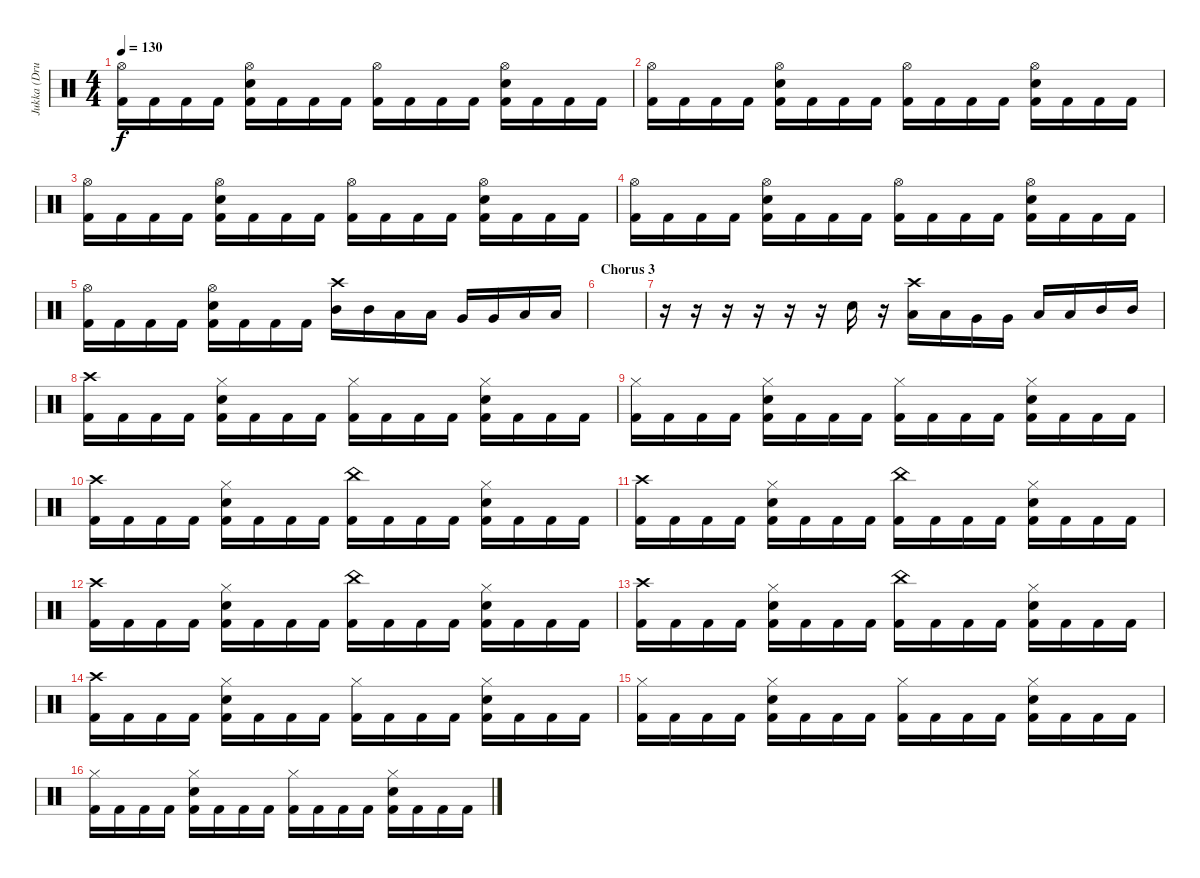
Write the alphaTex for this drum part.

\track ("Jukka (Drums)" "Jukka (Dru") {instrument percussion}
\staff {score}
\articulation defaults
\ts (4 4)
\tempo 130
\clef neutral
\ks c
("Hi-Hat (open)" "Kick (hit) 2").16{dy f} "Kick (hit) 2".16 "Kick (hit) 2".16 "Kick (hit) 2".16 ("Hi-Hat (open)" "Kick (hit) 2" "Electric Snare (hit)").16 "Kick (hit) 2".16 "Kick (hit) 2".16 "Kick (hit) 2".16 ("Hi-Hat (open)" "Kick (hit) 2").16 "Kick (hit) 2".16 "Kick (hit) 2".16 "Kick (hit) 2".16 ("Hi-Hat (open)" "Kick (hit) 2" "Electric Snare (hit)").16 "Kick (hit) 2".16 "Kick (hit) 2".16 "Kick (hit) 2".16 |
("Hi-Hat (open)" "Kick (hit) 2").16 "Kick (hit) 2".16 "Kick (hit) 2".16 "Kick (hit) 2".16 ("Hi-Hat (open)" "Kick (hit) 2" "Electric Snare (hit)").16 "Kick (hit) 2".16 "Kick (hit) 2".16 "Kick (hit) 2".16 ("Hi-Hat (open)" "Kick (hit) 2").16 "Kick (hit) 2".16 "Kick (hit) 2".16 "Kick (hit) 2".16 ("Hi-Hat (open)" "Kick (hit) 2" "Electric Snare (hit)").16 "Kick (hit) 2".16 "Kick (hit) 2".16 "Kick (hit) 2".16 |
("Hi-Hat (open)" "Kick (hit) 2").16 "Kick (hit) 2".16 "Kick (hit) 2".16 "Kick (hit) 2".16 ("Hi-Hat (open)" "Kick (hit) 2" "Electric Snare (hit)").16 "Kick (hit) 2".16 "Kick (hit) 2".16 "Kick (hit) 2".16 ("Hi-Hat (open)" "Kick (hit) 2").16 "Kick (hit) 2".16 "Kick (hit) 2".16 "Kick (hit) 2".16 ("Hi-Hat (open)" "Kick (hit) 2" "Electric Snare (hit)").16 "Kick (hit) 2".16 "Kick (hit) 2".16 "Kick (hit) 2".16 |
("Hi-Hat (open)" "Kick (hit) 2").16 "Kick (hit) 2".16 "Kick (hit) 2".16 "Kick (hit) 2".16 ("Hi-Hat (open)" "Kick (hit) 2" "Electric Snare (hit)").16 "Kick (hit) 2".16 "Kick (hit) 2".16 "Kick (hit) 2".16 ("Hi-Hat (open)" "Kick (hit) 2").16 "Kick (hit) 2".16 "Kick (hit) 2".16 "Kick (hit) 2".16 ("Hi-Hat (open)" "Kick (hit) 2" "Electric Snare (hit)").16 "Kick (hit) 2".16 "Kick (hit) 2".16 "Kick (hit) 2".16 |
("Hi-Hat (open)" "Kick (hit) 2").16 "Kick (hit) 2".16 "Kick (hit) 2".16 "Kick (hit) 2".16 ("Hi-Hat (open)" "Kick (hit) 2" "Electric Snare (hit)").16 "Kick (hit) 2".16 "Kick (hit) 2".16 "Kick (hit) 2".16 ("Crash high (hit)" "Mid Tom (hit)").16 "Mid Tom (hit)".16 "Low Tom (hit)".16 "Low Tom (hit)".16 "Very Low Tom (hit)".16 "Very Low Tom (hit)".16 "Low Floor Tom (hit)".16 "Low Floor Tom (hit)".16 |
\section ("" "Chorus 3")
|
r.16 r.16 r.16 r.16 r.16 r.16 "Electric Snare (hit)".16 r.16 ("Crash high (hit)" "Low Floor Tom (hit)").16 "Low Floor Tom (hit)".16 "Very Low Tom (hit)".16 "Very Low Tom (hit)".16 "Low Tom (hit)".16 "Low Tom (hit)".16 "Mid Tom (hit)".16 "Mid Tom (hit)".16 |
("Crash high (hit)" "Kick (hit) 2").16 "Kick (hit) 2".16 "Kick (hit) 2".16 "Kick (hit) 2".16 ("Hi-Hat (closed)" "Kick (hit) 2" "Electric Snare (hit)").16 "Kick (hit) 2".16 "Kick (hit) 2".16 "Kick (hit) 2".16 ("Hi-Hat (closed)" "Kick (hit) 2").16 "Kick (hit) 2".16 "Kick (hit) 2".16 "Kick (hit) 2".16 ("Hi-Hat (closed)" "Kick (hit) 2" "Electric Snare (hit)").16 "Kick (hit) 2".16 "Kick (hit) 2".16 "Kick (hit) 2".16 |
("Hi-Hat (closed)" "Kick (hit) 2").16 "Kick (hit) 2".16 "Kick (hit) 2".16 "Kick (hit) 2".16 ("Hi-Hat (closed)" "Kick (hit) 2" "Electric Snare (hit)").16 "Kick (hit) 2".16 "Kick (hit) 2".16 "Kick (hit) 2".16 ("Hi-Hat (closed)" "Kick (hit) 2").16 "Kick (hit) 2".16 "Kick (hit) 2".16 "Kick (hit) 2".16 ("Hi-Hat (closed)" "Kick (hit) 2" "Electric Snare (hit)").16 "Kick (hit) 2".16 "Kick (hit) 2".16 "Kick (hit) 2".16 |
("Crash high (hit)" "Kick (hit) 2").16 "Kick (hit) 2".16 "Kick (hit) 2".16 "Kick (hit) 2".16 ("Hi-Hat (closed)" "Kick (hit) 2" "Electric Snare (hit)").16 "Kick (hit) 2".16 "Kick (hit) 2".16 "Kick (hit) 2".16 ("China (hit)" "Kick (hit) 2").16 "Kick (hit) 2".16 "Kick (hit) 2".16 "Kick (hit) 2".16 ("Hi-Hat (closed)" "Kick (hit) 2" "Electric Snare (hit)").16 "Kick (hit) 2".16 "Kick (hit) 2".16 "Kick (hit) 2".16 |
("Crash high (hit)" "Kick (hit) 2").16 "Kick (hit) 2".16 "Kick (hit) 2".16 "Kick (hit) 2".16 ("Hi-Hat (closed)" "Kick (hit) 2" "Electric Snare (hit)").16 "Kick (hit) 2".16 "Kick (hit) 2".16 "Kick (hit) 2".16 ("China (hit)" "Kick (hit) 2").16 "Kick (hit) 2".16 "Kick (hit) 2".16 "Kick (hit) 2".16 ("Hi-Hat (closed)" "Kick (hit) 2" "Electric Snare (hit)").16 "Kick (hit) 2".16 "Kick (hit) 2".16 "Kick (hit) 2".16 |
("Crash high (hit)" "Kick (hit) 2").16 "Kick (hit) 2".16 "Kick (hit) 2".16 "Kick (hit) 2".16 ("Hi-Hat (closed)" "Kick (hit) 2" "Electric Snare (hit)").16 "Kick (hit) 2".16 "Kick (hit) 2".16 "Kick (hit) 2".16 ("China (hit)" "Kick (hit) 2").16 "Kick (hit) 2".16 "Kick (hit) 2".16 "Kick (hit) 2".16 ("Hi-Hat (closed)" "Kick (hit) 2" "Electric Snare (hit)").16 "Kick (hit) 2".16 "Kick (hit) 2".16 "Kick (hit) 2".16 |
("Crash high (hit)" "Kick (hit) 2").16 "Kick (hit) 2".16 "Kick (hit) 2".16 "Kick (hit) 2".16 ("Hi-Hat (closed)" "Kick (hit) 2" "Electric Snare (hit)").16 "Kick (hit) 2".16 "Kick (hit) 2".16 "Kick (hit) 2".16 ("China (hit)" "Kick (hit) 2").16 "Kick (hit) 2".16 "Kick (hit) 2".16 "Kick (hit) 2".16 ("Hi-Hat (closed)" "Kick (hit) 2" "Electric Snare (hit)").16 "Kick (hit) 2".16 "Kick (hit) 2".16 "Kick (hit) 2".16 |
("Crash high (hit)" "Kick (hit) 2").16 "Kick (hit) 2".16 "Kick (hit) 2".16 "Kick (hit) 2".16 ("Hi-Hat (closed)" "Kick (hit) 2" "Electric Snare (hit)").16 "Kick (hit) 2".16 "Kick (hit) 2".16 "Kick (hit) 2".16 ("Hi-Hat (closed)" "Kick (hit) 2").16 "Kick (hit) 2".16 "Kick (hit) 2".16 "Kick (hit) 2".16 ("Hi-Hat (closed)" "Kick (hit) 2" "Electric Snare (hit)").16 "Kick (hit) 2".16 "Kick (hit) 2".16 "Kick (hit) 2".16 |
("Hi-Hat (closed)" "Kick (hit) 2").16 "Kick (hit) 2".16 "Kick (hit) 2".16 "Kick (hit) 2".16 ("Hi-Hat (closed)" "Kick (hit) 2" "Electric Snare (hit)").16 "Kick (hit) 2".16 "Kick (hit) 2".16 "Kick (hit) 2".16 ("Hi-Hat (closed)" "Kick (hit) 2").16 "Kick (hit) 2".16 "Kick (hit) 2".16 "Kick (hit) 2".16 ("Hi-Hat (closed)" "Kick (hit) 2" "Electric Snare (hit)").16 "Kick (hit) 2".16 "Kick (hit) 2".16 "Kick (hit) 2".16 |
("Hi-Hat (closed)" "Kick (hit) 2").16 "Kick (hit) 2".16 "Kick (hit) 2".16 "Kick (hit) 2".16 ("Hi-Hat (closed)" "Kick (hit) 2" "Electric Snare (hit)").16 "Kick (hit) 2".16 "Kick (hit) 2".16 "Kick (hit) 2".16 ("Hi-Hat (closed)" "Kick (hit) 2").16 "Kick (hit) 2".16 "Kick (hit) 2".16 "Kick (hit) 2".16 ("Hi-Hat (closed)" "Kick (hit) 2" "Electric Snare (hit)").16 "Kick (hit) 2".16 "Kick (hit) 2".16 "Kick (hit) 2".16
